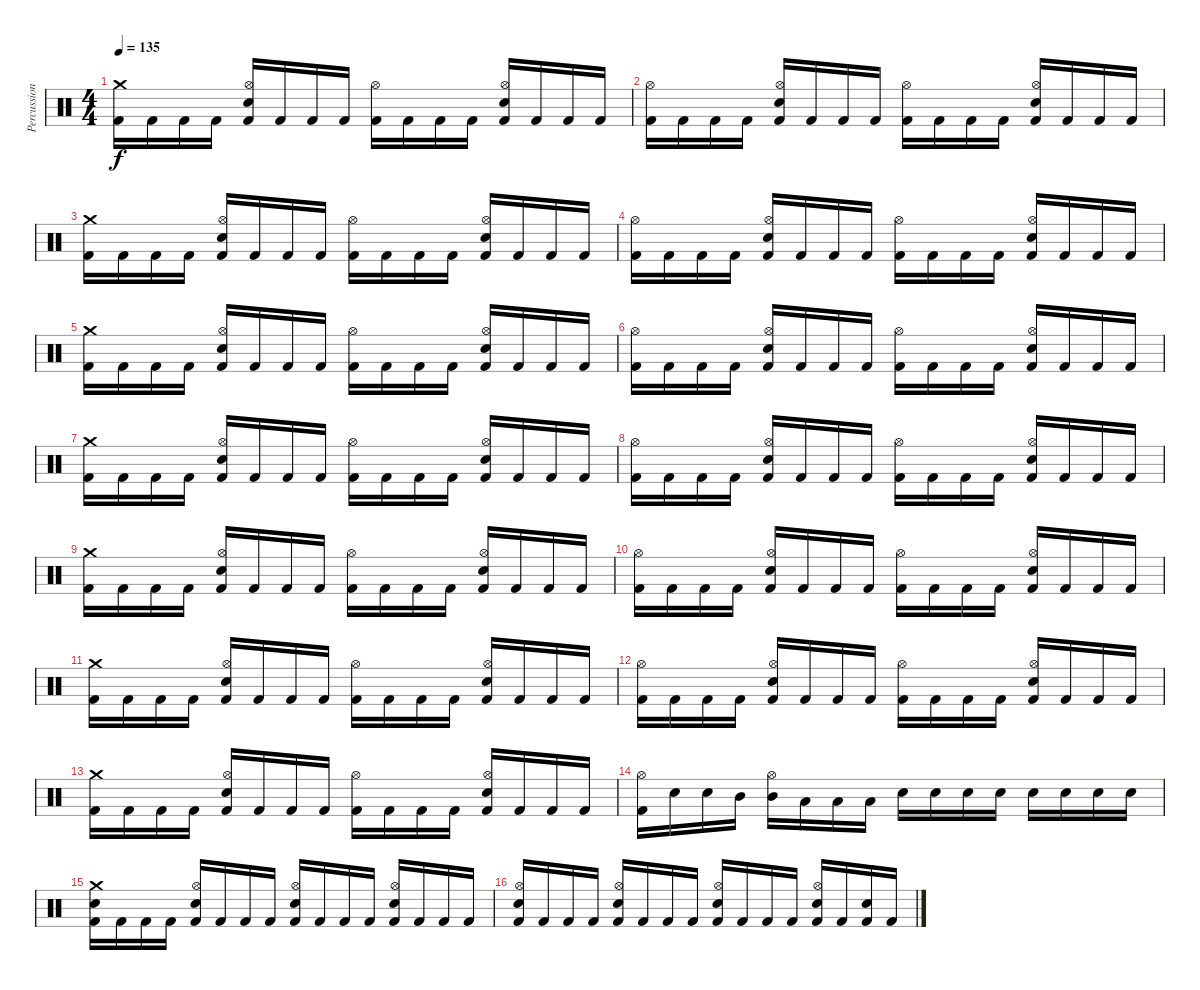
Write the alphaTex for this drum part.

\track ("Percussion" "Percussion") {instrument percussion}
\staff {score}
\articulation defaults
\ts (4 4)
\tempo 135
\clef neutral
\ks c
("Crash medium (hit)" "Kick (hit) 2").16{dy f} "Kick (hit) 2".16 "Kick (hit) 2".16 "Kick (hit) 2".16 ("Hi-Hat (open)" "Electric Snare (hit)" "Kick (hit) 2").16 "Kick (hit) 2".16 "Kick (hit) 2".16 "Kick (hit) 2".16 ("Hi-Hat (open)" "Kick (hit) 2").16 "Kick (hit) 2".16 "Kick (hit) 2".16 "Kick (hit) 2".16 ("Hi-Hat (open)" "Electric Snare (hit)" "Kick (hit) 2").16 "Kick (hit) 2".16 "Kick (hit) 2".16 "Kick (hit) 2".16 |
("Hi-Hat (open)" "Kick (hit) 2").16 "Kick (hit) 2".16 "Kick (hit) 2".16 "Kick (hit) 2".16 ("Hi-Hat (open)" "Electric Snare (hit)" "Kick (hit) 2").16 "Kick (hit) 2".16 "Kick (hit) 2".16 "Kick (hit) 2".16 ("Hi-Hat (open)" "Kick (hit) 2").16 "Kick (hit) 2".16 "Kick (hit) 2".16 "Kick (hit) 2".16 ("Hi-Hat (open)" "Electric Snare (hit)" "Kick (hit) 2").16 "Kick (hit) 2".16 "Kick (hit) 2".16 "Kick (hit) 2".16 |
("Crash medium (hit)" "Kick (hit) 2").16 "Kick (hit) 2".16 "Kick (hit) 2".16 "Kick (hit) 2".16 ("Hi-Hat (open)" "Electric Snare (hit)" "Kick (hit) 2").16 "Kick (hit) 2".16 "Kick (hit) 2".16 "Kick (hit) 2".16 ("Hi-Hat (open)" "Kick (hit) 2").16 "Kick (hit) 2".16 "Kick (hit) 2".16 "Kick (hit) 2".16 ("Hi-Hat (open)" "Electric Snare (hit)" "Kick (hit) 2").16 "Kick (hit) 2".16 "Kick (hit) 2".16 "Kick (hit) 2".16 |
("Hi-Hat (open)" "Kick (hit) 2").16 "Kick (hit) 2".16 "Kick (hit) 2".16 "Kick (hit) 2".16 ("Hi-Hat (open)" "Electric Snare (hit)" "Kick (hit) 2").16 "Kick (hit) 2".16 "Kick (hit) 2".16 "Kick (hit) 2".16 ("Hi-Hat (open)" "Kick (hit) 2").16 "Kick (hit) 2".16 "Kick (hit) 2".16 "Kick (hit) 2".16 ("Hi-Hat (open)" "Electric Snare (hit)" "Kick (hit) 2").16 "Kick (hit) 2".16 "Kick (hit) 2".16 "Kick (hit) 2".16 |
("Crash medium (hit)" "Kick (hit) 2").16 "Kick (hit) 2".16 "Kick (hit) 2".16 "Kick (hit) 2".16 ("Hi-Hat (open)" "Electric Snare (hit)" "Kick (hit) 2").16 "Kick (hit) 2".16 "Kick (hit) 2".16 "Kick (hit) 2".16 ("Hi-Hat (open)" "Kick (hit) 2").16 "Kick (hit) 2".16 "Kick (hit) 2".16 "Kick (hit) 2".16 ("Hi-Hat (open)" "Electric Snare (hit)" "Kick (hit) 2").16 "Kick (hit) 2".16 "Kick (hit) 2".16 "Kick (hit) 2".16 |
("Hi-Hat (open)" "Kick (hit) 2").16 "Kick (hit) 2".16 "Kick (hit) 2".16 "Kick (hit) 2".16 ("Hi-Hat (open)" "Electric Snare (hit)" "Kick (hit) 2").16 "Kick (hit) 2".16 "Kick (hit) 2".16 "Kick (hit) 2".16 ("Hi-Hat (open)" "Kick (hit) 2").16 "Kick (hit) 2".16 "Kick (hit) 2".16 "Kick (hit) 2".16 ("Hi-Hat (open)" "Electric Snare (hit)" "Kick (hit) 2").16 "Kick (hit) 2".16 "Kick (hit) 2".16 "Kick (hit) 2".16 |
("Crash medium (hit)" "Kick (hit) 2").16 "Kick (hit) 2".16 "Kick (hit) 2".16 "Kick (hit) 2".16 ("Hi-Hat (open)" "Electric Snare (hit)" "Kick (hit) 2").16 "Kick (hit) 2".16 "Kick (hit) 2".16 "Kick (hit) 2".16 ("Hi-Hat (open)" "Kick (hit) 2").16 "Kick (hit) 2".16 "Kick (hit) 2".16 "Kick (hit) 2".16 ("Hi-Hat (open)" "Electric Snare (hit)" "Kick (hit) 2").16 "Kick (hit) 2".16 "Kick (hit) 2".16 "Kick (hit) 2".16 |
("Hi-Hat (open)" "Kick (hit) 2").16 "Kick (hit) 2".16 "Kick (hit) 2".16 "Kick (hit) 2".16 ("Hi-Hat (open)" "Electric Snare (hit)" "Kick (hit) 2").16 "Kick (hit) 2".16 "Kick (hit) 2".16 "Kick (hit) 2".16 ("Hi-Hat (open)" "Kick (hit) 2").16 "Kick (hit) 2".16 "Kick (hit) 2".16 "Kick (hit) 2".16 ("Hi-Hat (open)" "Electric Snare (hit)" "Kick (hit) 2").16 "Kick (hit) 2".16 "Kick (hit) 2".16 "Kick (hit) 2".16 |
("Crash medium (hit)" "Kick (hit) 2").16 "Kick (hit) 2".16 "Kick (hit) 2".16 "Kick (hit) 2".16 ("Hi-Hat (open)" "Electric Snare (hit)" "Kick (hit) 2").16 "Kick (hit) 2".16 "Kick (hit) 2".16 "Kick (hit) 2".16 ("Hi-Hat (open)" "Kick (hit) 2").16 "Kick (hit) 2".16 "Kick (hit) 2".16 "Kick (hit) 2".16 ("Hi-Hat (open)" "Electric Snare (hit)" "Kick (hit) 2").16 "Kick (hit) 2".16 "Kick (hit) 2".16 "Kick (hit) 2".16 |
("Hi-Hat (open)" "Kick (hit) 2").16 "Kick (hit) 2".16 "Kick (hit) 2".16 "Kick (hit) 2".16 ("Hi-Hat (open)" "Electric Snare (hit)" "Kick (hit) 2").16 "Kick (hit) 2".16 "Kick (hit) 2".16 "Kick (hit) 2".16 ("Hi-Hat (open)" "Kick (hit) 2").16 "Kick (hit) 2".16 "Kick (hit) 2".16 "Kick (hit) 2".16 ("Hi-Hat (open)" "Electric Snare (hit)" "Kick (hit) 2").16 "Kick (hit) 2".16 "Kick (hit) 2".16 "Kick (hit) 2".16 |
("Crash medium (hit)" "Kick (hit) 2").16 "Kick (hit) 2".16 "Kick (hit) 2".16 "Kick (hit) 2".16 ("Hi-Hat (open)" "Electric Snare (hit)" "Kick (hit) 2").16 "Kick (hit) 2".16 "Kick (hit) 2".16 "Kick (hit) 2".16 ("Hi-Hat (open)" "Kick (hit) 2").16 "Kick (hit) 2".16 "Kick (hit) 2".16 "Kick (hit) 2".16 ("Hi-Hat (open)" "Electric Snare (hit)" "Kick (hit) 2").16 "Kick (hit) 2".16 "Kick (hit) 2".16 "Kick (hit) 2".16 |
("Hi-Hat (open)" "Kick (hit) 2").16 "Kick (hit) 2".16 "Kick (hit) 2".16 "Kick (hit) 2".16 ("Hi-Hat (open)" "Electric Snare (hit)" "Kick (hit) 2").16 "Kick (hit) 2".16 "Kick (hit) 2".16 "Kick (hit) 2".16 ("Hi-Hat (open)" "Kick (hit) 2").16 "Kick (hit) 2".16 "Kick (hit) 2".16 "Kick (hit) 2".16 ("Hi-Hat (open)" "Electric Snare (hit)" "Kick (hit) 2").16 "Kick (hit) 2".16 "Kick (hit) 2".16 "Kick (hit) 2".16 |
("Crash medium (hit)" "Kick (hit) 2").16 "Kick (hit) 2".16 "Kick (hit) 2".16 "Kick (hit) 2".16 ("Hi-Hat (open)" "Electric Snare (hit)" "Kick (hit) 2").16 "Kick (hit) 2".16 "Kick (hit) 2".16 "Kick (hit) 2".16 ("Hi-Hat (open)" "Kick (hit) 2").16 "Kick (hit) 2".16 "Kick (hit) 2".16 "Kick (hit) 2".16 ("Hi-Hat (open)" "Electric Snare (hit)" "Kick (hit) 2").16 "Kick (hit) 2".16 "Kick (hit) 2".16 "Kick (hit) 2".16 |
("Hi-Hat (open)" "Kick (hit) 2").16 "Electric Snare (hit)".16 "Electric Snare (hit)".16 "Mid Tom (hit)".16 ("Hi-Hat (open)" "Mid Tom (hit)").16 "Low Tom (hit)".16 "Low Tom (hit)".16 "Low Floor Tom (hit)".16 "Electric Snare (hit)".16 "Electric Snare (hit)".16 "Electric Snare (hit)".16 "Electric Snare (hit)".16 "Electric Snare (hit)".16 "Electric Snare (hit)".16 "Electric Snare (hit)".16 "Electric Snare (hit)".16 |
("Crash medium (hit)" "Electric Snare (hit)" "Kick (hit) 2").16 "Kick (hit) 2".16 "Kick (hit) 2".16 "Kick (hit) 2".16 ("Hi-Hat (open)" "Electric Snare (hit)" "Kick (hit) 2").16 "Kick (hit) 2".16 "Kick (hit) 2".16 "Kick (hit) 2".16 ("Hi-Hat (open)" "Electric Snare (hit)" "Kick (hit) 2").16 "Kick (hit) 2".16 "Kick (hit) 2".16 "Kick (hit) 2".16 ("Hi-Hat (open)" "Electric Snare (hit)" "Kick (hit) 2").16 "Kick (hit) 2".16 "Kick (hit) 2".16 "Kick (hit) 2".16 |
("Hi-Hat (open)" "Electric Snare (hit)" "Kick (hit) 2").16 "Kick (hit) 2".16 "Kick (hit) 2".16 "Kick (hit) 2".16 ("Hi-Hat (open)" "Electric Snare (hit)" "Kick (hit) 2").16 "Kick (hit) 2".16 "Kick (hit) 2".16 "Kick (hit) 2".16 ("Hi-Hat (open)" "Electric Snare (hit)" "Kick (hit) 2").16 "Kick (hit) 2".16 "Kick (hit) 2".16 "Kick (hit) 2".16 ("Hi-Hat (open)" "Electric Snare (hit)" "Kick (hit) 2").16 "Kick (hit) 2".16 ("Electric Snare (hit)" "Kick (hit) 2").16 "Kick (hit) 2".16
